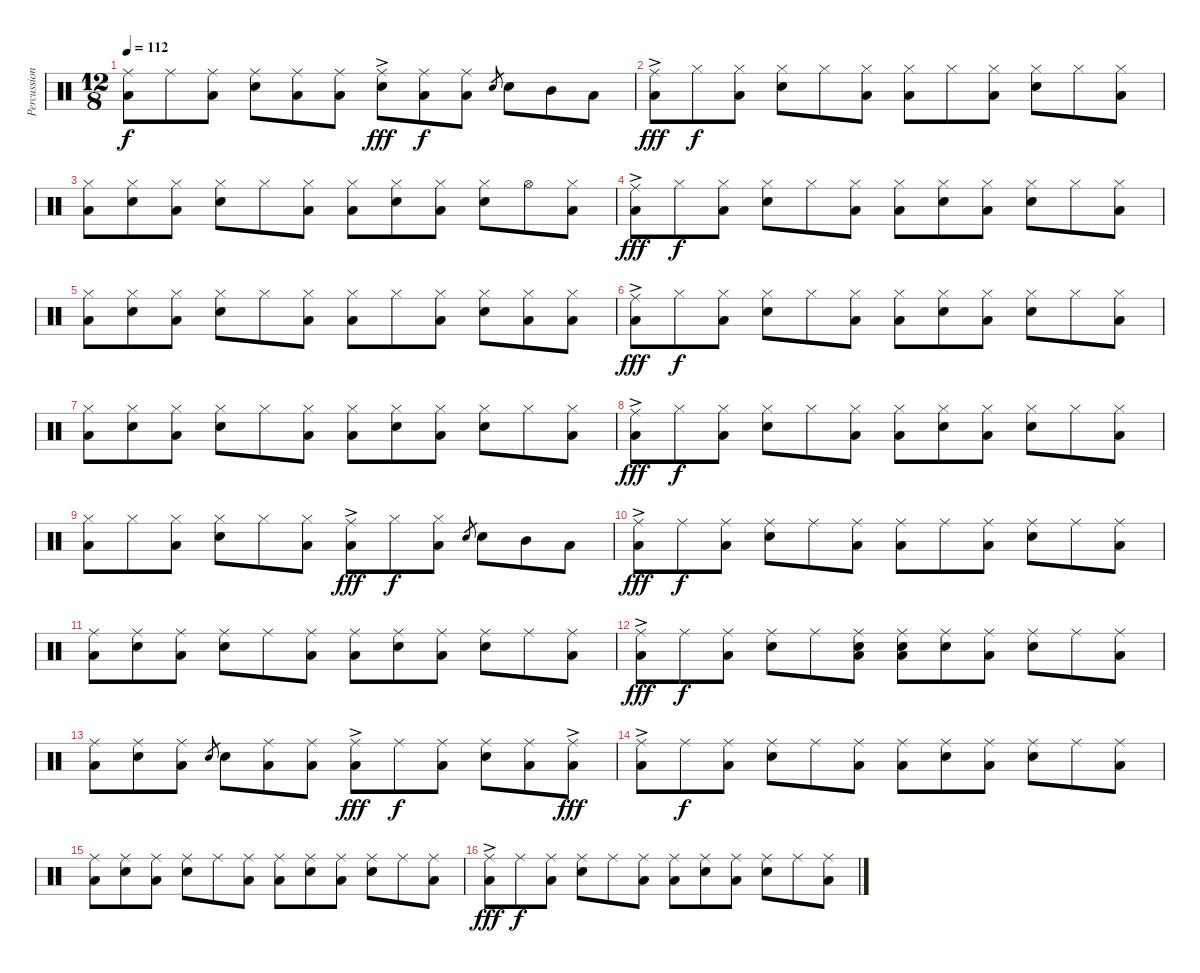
\track ("Percussion" "Percussion") {instrument percussion}
\staff {score}
\articulation defaults
\ts (12 8)
\tempo 112
\clef neutral
\ks c
("Ride (middle)" "Low Floor Tom (hit)").8{dy f} "Ride (middle)".8 ("Ride (middle)" "Low Floor Tom (hit)").8 ("Ride (middle)" "Snare (hit) 2").8 ("Ride (middle)" "Low Floor Tom (hit)").8 ("Ride (middle)" "Low Floor Tom (hit)").8 ("Ride (middle)"{ac} "Snare (hit) 2").8{dy fff} ("Ride (middle)" "Low Floor Tom (hit)").8{dy f} ("Ride (middle)" "Low Floor Tom (hit)").8 "Snare (hit) 2".8{gr} "Snare (hit) 2".8 "Mid Tom (hit)".8 "Low Tom (hit)".8 |
("Ride (middle)"{ac} "Low Floor Tom (hit)").8{dy fff} "Hi-Hat (closed)".8{dy f} ("Hi-Hat (closed)" "Low Floor Tom (hit)").8 ("Hi-Hat (closed)" "Snare (hit) 2").8 "Hi-Hat (closed)".8 ("Hi-Hat (closed)" "Low Floor Tom (hit)").8 ("Hi-Hat (closed)" "Low Floor Tom (hit)").8 "Hi-Hat (closed)".8 ("Hi-Hat (closed)" "Low Floor Tom (hit)").8 ("Hi-Hat (closed)" "Snare (hit) 2").8 "Hi-Hat (closed)".8 ("Hi-Hat (closed)" "Low Floor Tom (hit)").8 |
("Hi-Hat (closed)" "Low Floor Tom (hit)").8 ("Hi-Hat (closed)" "Snare (hit) 2").8 ("Hi-Hat (closed)" "Low Floor Tom (hit)").8 ("Hi-Hat (closed)" "Snare (hit) 2").8 "Hi-Hat (closed)".8 ("Hi-Hat (closed)" "Low Floor Tom (hit)").8 ("Hi-Hat (closed)" "Low Floor Tom (hit)").8 ("Hi-Hat (closed)" "Snare (hit) 2").8 ("Hi-Hat (closed)" "Low Floor Tom (hit)").8 ("Hi-Hat (closed)" "Snare (hit) 2").8 "Hi-Hat (open)".8 ("Hi-Hat (closed)" "Low Floor Tom (hit)").8 |
("Ride (middle)"{ac} "Low Floor Tom (hit)").8{dy fff} "Hi-Hat (closed)".8{dy f} ("Hi-Hat (closed)" "Low Floor Tom (hit)").8 ("Hi-Hat (closed)" "Snare (hit) 2").8 "Hi-Hat (closed)".8 ("Hi-Hat (closed)" "Low Floor Tom (hit)").8 ("Hi-Hat (closed)" "Low Floor Tom (hit)").8 ("Hi-Hat (closed)" "Snare (hit) 2").8 ("Hi-Hat (closed)" "Low Floor Tom (hit)").8 ("Hi-Hat (closed)" "Snare (hit) 2").8 "Hi-Hat (closed)".8 ("Hi-Hat (closed)" "Low Floor Tom (hit)").8 |
("Hi-Hat (closed)" "Low Floor Tom (hit)").8 ("Hi-Hat (closed)" "Snare (hit) 2").8 ("Hi-Hat (closed)" "Low Floor Tom (hit)").8 ("Hi-Hat (closed)" "Snare (hit) 2").8 "Hi-Hat (closed)".8 ("Hi-Hat (closed)" "Low Floor Tom (hit)").8 ("Hi-Hat (closed)" "Low Floor Tom (hit)").8 "Hi-Hat (closed)".8 ("Hi-Hat (closed)" "Low Floor Tom (hit)").8 ("Hi-Hat (closed)" "Snare (hit) 2").8 ("Hi-Hat (closed)" "Low Floor Tom (hit)").8 ("Hi-Hat (closed)" "Low Floor Tom (hit)").8 |
("Ride (middle)"{ac} "Low Floor Tom (hit)").8{dy fff} "Hi-Hat (closed)".8{dy f} ("Hi-Hat (closed)" "Low Floor Tom (hit)").8 ("Hi-Hat (closed)" "Snare (hit) 2").8 "Hi-Hat (closed)".8 ("Hi-Hat (closed)" "Low Floor Tom (hit)").8 ("Hi-Hat (closed)" "Low Floor Tom (hit)").8 ("Hi-Hat (closed)" "Snare (hit) 2").8 ("Hi-Hat (closed)" "Low Floor Tom (hit)").8 ("Hi-Hat (closed)" "Snare (hit) 2").8 "Hi-Hat (closed)".8 ("Hi-Hat (closed)" "Low Floor Tom (hit)").8 |
("Hi-Hat (closed)" "Low Floor Tom (hit)").8 ("Hi-Hat (closed)" "Snare (hit) 2").8 ("Hi-Hat (closed)" "Low Floor Tom (hit)").8 ("Hi-Hat (closed)" "Snare (hit) 2").8 "Hi-Hat (closed)".8 ("Hi-Hat (closed)" "Low Floor Tom (hit)").8 ("Hi-Hat (closed)" "Low Floor Tom (hit)").8 ("Hi-Hat (closed)" "Snare (hit) 2").8 ("Hi-Hat (closed)" "Low Floor Tom (hit)").8 ("Hi-Hat (closed)" "Snare (hit) 2").8 "Hi-Hat (closed)".8 ("Hi-Hat (closed)" "Low Floor Tom (hit)").8 |
("Ride (middle)"{ac} "Low Floor Tom (hit)").8{dy fff} "Hi-Hat (closed)".8{dy f} ("Hi-Hat (closed)" "Low Floor Tom (hit)").8 ("Hi-Hat (closed)" "Snare (hit) 2").8 "Hi-Hat (closed)".8 ("Hi-Hat (closed)" "Low Floor Tom (hit)").8 ("Hi-Hat (closed)" "Low Floor Tom (hit)").8 ("Hi-Hat (closed)" "Snare (hit) 2").8 ("Hi-Hat (closed)" "Low Floor Tom (hit)").8 ("Hi-Hat (closed)" "Snare (hit) 2").8 "Hi-Hat (closed)".8 ("Hi-Hat (closed)" "Low Floor Tom (hit)").8 |
("Hi-Hat (closed)" "Low Floor Tom (hit)").8 "Hi-Hat (closed)".8 ("Hi-Hat (closed)" "Low Floor Tom (hit)").8 ("Hi-Hat (closed)" "Snare (hit) 2").8 "Hi-Hat (closed)".8 ("Hi-Hat (closed)" "Low Floor Tom (hit)").8 ("Ride (middle)"{ac} "Low Floor Tom (hit)").8{dy fff} "Hi-Hat (closed)".8{dy f} ("Hi-Hat (closed)" "Low Floor Tom (hit)").8 "Snare (hit) 2".8{gr} "Snare (hit) 2".8 "Mid Tom (hit)".8 "Low Tom (hit)".8 |
("Ride (middle)"{ac} "Low Floor Tom (hit)").8{dy fff} "Ride (middle)".8{dy f} ("Ride (middle)" "Low Floor Tom (hit)").8 ("Ride (middle)" "Snare (hit) 2").8 "Ride (middle)".8 ("Ride (middle)" "Low Floor Tom (hit)").8 ("Ride (middle)" "Low Floor Tom (hit)").8 "Ride (middle)".8 ("Ride (middle)" "Low Floor Tom (hit)").8 ("Ride (middle)" "Snare (hit) 2").8 "Ride (middle)".8 ("Ride (middle)" "Low Floor Tom (hit)").8 |
("Ride (middle)" "Low Floor Tom (hit)").8 ("Ride (middle)" "Snare (hit) 2").8 ("Ride (middle)" "Low Floor Tom (hit)").8 ("Ride (middle)" "Snare (hit) 2").8 "Ride (middle)".8 ("Ride (middle)" "Low Floor Tom (hit)").8 ("Ride (middle)" "Low Floor Tom (hit)").8 ("Ride (middle)" "Snare (hit) 2").8 ("Ride (middle)" "Low Floor Tom (hit)").8 ("Ride (middle)" "Snare (hit) 2").8 "Ride (middle)".8 ("Ride (middle)" "Low Floor Tom (hit)").8 |
("Ride (middle)"{ac} "Low Floor Tom (hit)").8{dy fff} "Ride (middle)".8{dy f} ("Ride (middle)" "Low Floor Tom (hit)").8 ("Ride (middle)" "Snare (hit) 2").8 "Ride (middle)".8 ("Ride (middle)" "Snare (hit) 2" "Low Floor Tom (hit)").8 ("Ride (middle)" "Snare (hit) 2" "Low Floor Tom (hit)").8 ("Ride (middle)" "Snare (hit) 2").8 ("Ride (middle)" "Low Floor Tom (hit)").8 ("Ride (middle)" "Snare (hit) 2").8 "Ride (middle)".8 ("Ride (middle)" "Low Floor Tom (hit)").8 |
("Ride (middle)" "Low Floor Tom (hit)").8 ("Ride (middle)" "Snare (hit) 2").8 ("Ride (middle)" "Low Floor Tom (hit)").8 "Snare (hit) 2".8{gr} "Snare (hit) 2".8 ("Ride (middle)" "Low Floor Tom (hit)").8 ("Ride (middle)" "Low Floor Tom (hit)").8 ("Ride (middle)"{ac} "Low Floor Tom (hit)").8{dy fff} "Ride (middle)".8{dy f} ("Ride (middle)" "Low Floor Tom (hit)").8 ("Ride (middle)" "Snare (hit) 2").8 ("Ride (middle)" "Low Floor Tom (hit)").8 ("Ride (middle)"{ac} "Low Floor Tom (hit)").8{dy fff} |
("Ride (middle)"{ac} "Low Floor Tom (hit)").8 "Ride (middle)".8{dy f} ("Ride (middle)" "Low Floor Tom (hit)").8 ("Ride (middle)" "Snare (hit) 2").8 "Ride (middle)".8 ("Ride (middle)" "Low Floor Tom (hit)").8 ("Ride (middle)" "Low Floor Tom (hit)").8 ("Ride (middle)" "Snare (hit) 2").8 ("Ride (middle)" "Low Floor Tom (hit)").8 ("Ride (middle)" "Snare (hit) 2").8 "Ride (middle)".8 ("Ride (middle)" "Low Floor Tom (hit)").8 |
("Ride (middle)" "Low Floor Tom (hit)").8 ("Ride (middle)" "Snare (hit) 2").8 ("Ride (middle)" "Low Floor Tom (hit)").8 ("Ride (middle)" "Snare (hit) 2").8 "Ride (middle)".8 ("Ride (middle)" "Low Floor Tom (hit)").8 ("Ride (middle)" "Low Floor Tom (hit)").8 ("Ride (middle)" "Snare (hit) 2").8 ("Ride (middle)" "Low Floor Tom (hit)").8 ("Ride (middle)" "Snare (hit) 2").8 "Ride (middle)".8 ("Ride (middle)" "Low Floor Tom (hit)").8 |
("Ride (middle)"{ac} "Low Floor Tom (hit)").8{dy fff} "Ride (middle)".8{dy f} ("Ride (middle)" "Low Floor Tom (hit)").8 ("Ride (middle)" "Snare (hit) 2").8 "Ride (middle)".8 ("Ride (middle)" "Low Floor Tom (hit)").8 ("Ride (middle)" "Low Floor Tom (hit)").8 ("Ride (middle)" "Snare (hit) 2").8 ("Ride (middle)" "Low Floor Tom (hit)").8 ("Ride (middle)" "Snare (hit) 2").8 "Ride (middle)".8 ("Ride (middle)" "Low Floor Tom (hit)").8
